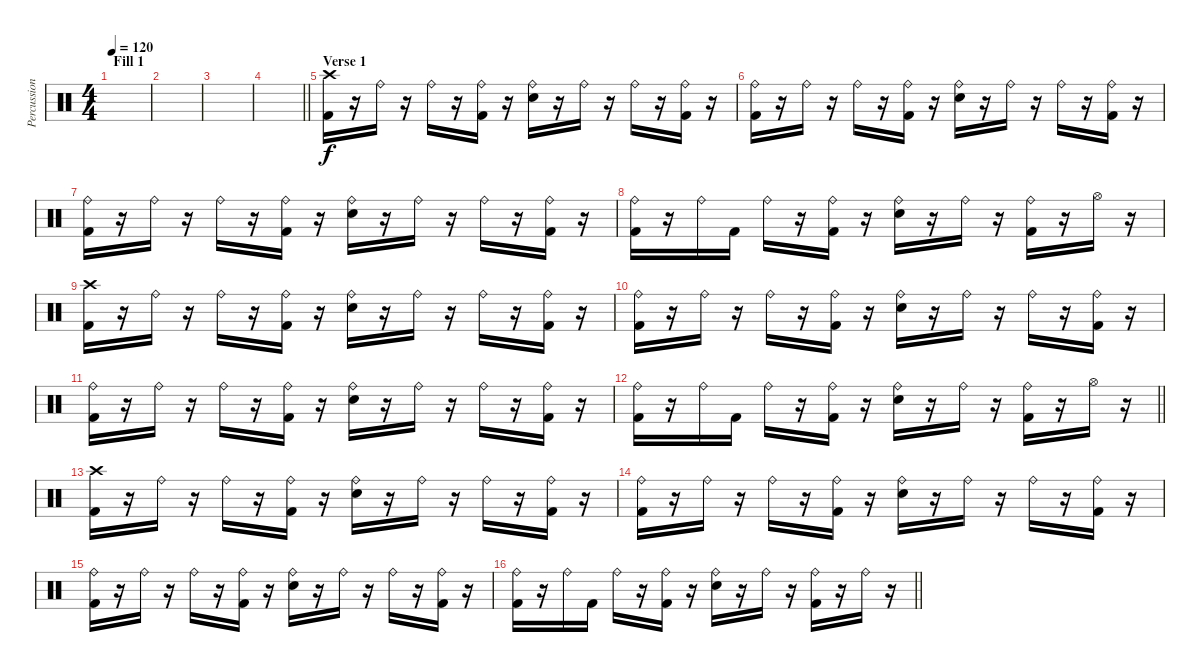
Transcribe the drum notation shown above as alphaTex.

\track ("Percussion" "Percussion") {instrument percussion}
\staff {score}
\articulation defaults
\ts (4 4)
\section ("" "Fill 1")
\tempo 120
\clef neutral
\ks c
|
|
|
\barLineRight lightlight
|
\section ("" "Verse 1")
("Crash high (hit)" "Kick (hit) 2").16 r.16 "Ride (bell)".16 r.16 "Ride (bell)".16 r.16 ("Ride (bell)" "Kick (hit) 2").16 r.16 ("Ride (bell)" "Electric Snare (hit)").16 r.16 "Ride (bell)".16 r.16 "Ride (bell)".16 r.16 ("Ride (bell)" "Kick (hit) 2").16 r.16 |
("Ride (bell)" "Kick (hit) 2").16 r.16 "Ride (bell)".16 r.16 "Ride (bell)".16 r.16 ("Ride (bell)" "Kick (hit) 2").16 r.16 ("Ride (bell)" "Electric Snare (hit)").16 r.16 "Ride (bell)".16 r.16 "Ride (bell)".16 r.16 ("Ride (bell)" "Kick (hit) 2").16 r.16 |
("Ride (bell)" "Kick (hit) 2").16 r.16 "Ride (bell)".16 r.16 "Ride (bell)".16 r.16 ("Ride (bell)" "Kick (hit) 2").16 r.16 ("Ride (bell)" "Electric Snare (hit)").16 r.16 "Ride (bell)".16 r.16 "Ride (bell)".16 r.16 ("Ride (bell)" "Kick (hit) 2").16 r.16 |
("Ride (bell)" "Kick (hit) 2").16 r.16 "Ride (bell)".16 "Kick (hit) 2".16 "Ride (bell)".16 r.16 ("Ride (bell)" "Kick (hit) 2").16 r.16 ("Ride (bell)" "Electric Snare (hit)").16 r.16 "Ride (bell)".16 r.16 ("Ride (bell)" "Kick (hit) 2").16 r.16 "Hi-Hat (open)".16 r.16 |
("Crash high (hit)" "Kick (hit) 2").16 r.16 "Ride (bell)".16 r.16 "Ride (bell)".16 r.16 ("Ride (bell)" "Kick (hit) 2").16 r.16 ("Ride (bell)" "Electric Snare (hit)").16 r.16 "Ride (bell)".16 r.16 "Ride (bell)".16 r.16 ("Ride (bell)" "Kick (hit) 2").16 r.16 |
("Ride (bell)" "Kick (hit) 2").16 r.16 "Ride (bell)".16 r.16 "Ride (bell)".16 r.16 ("Ride (bell)" "Kick (hit) 2").16 r.16 ("Ride (bell)" "Electric Snare (hit)").16 r.16 "Ride (bell)".16 r.16 "Ride (bell)".16 r.16 ("Ride (bell)" "Kick (hit) 2").16 r.16 |
("Ride (bell)" "Kick (hit) 2").16 r.16 "Ride (bell)".16 r.16 "Ride (bell)".16 r.16 ("Ride (bell)" "Kick (hit) 2").16 r.16 ("Ride (bell)" "Electric Snare (hit)").16 r.16 "Ride (bell)".16 r.16 "Ride (bell)".16 r.16 ("Ride (bell)" "Kick (hit) 2").16 r.16 |
\barLineRight lightlight
("Ride (bell)" "Kick (hit) 2").16 r.16 "Ride (bell)".16 "Kick (hit) 2".16 "Ride (bell)".16 r.16 ("Ride (bell)" "Kick (hit) 2").16 r.16 ("Ride (bell)" "Electric Snare (hit)").16 r.16 "Ride (bell)".16 r.16 ("Ride (bell)" "Kick (hit) 2").16 r.16 "Hi-Hat (open)".16 r.16 |
("Crash high (hit)" "Kick (hit) 2").16 r.16 "Ride (bell)".16 r.16 "Ride (bell)".16 r.16 ("Ride (bell)" "Kick (hit) 2").16 r.16 ("Ride (bell)" "Electric Snare (hit)").16 r.16 "Ride (bell)".16 r.16 "Ride (bell)".16 r.16 ("Ride (bell)" "Kick (hit) 2").16 r.16 |
("Ride (bell)" "Kick (hit) 2").16 r.16 "Ride (bell)".16 r.16 "Ride (bell)".16 r.16 ("Ride (bell)" "Kick (hit) 2").16 r.16 ("Ride (bell)" "Electric Snare (hit)").16 r.16 "Ride (bell)".16 r.16 "Ride (bell)".16 r.16 ("Ride (bell)" "Kick (hit) 2").16 r.16 |
("Ride (bell)" "Kick (hit) 2").16 r.16 "Ride (bell)".16 r.16 "Ride (bell)".16 r.16 ("Ride (bell)" "Kick (hit) 2").16 r.16 ("Ride (bell)" "Electric Snare (hit)").16 r.16 "Ride (bell)".16 r.16 "Ride (bell)".16 r.16 ("Ride (bell)" "Kick (hit) 2").16 r.16 |
\barLineRight lightlight
("Ride (bell)" "Kick (hit) 2").16 r.16 "Ride (bell)".16 "Kick (hit) 2".16 "Ride (bell)".16 r.16 ("Ride (bell)" "Kick (hit) 2").16 r.16 ("Ride (bell)" "Electric Snare (hit)").16 r.16 "Ride (bell)".16 r.16 ("Ride (bell)" "Kick (hit) 2").16 r.16 "Ride (bell)".16 r.16
